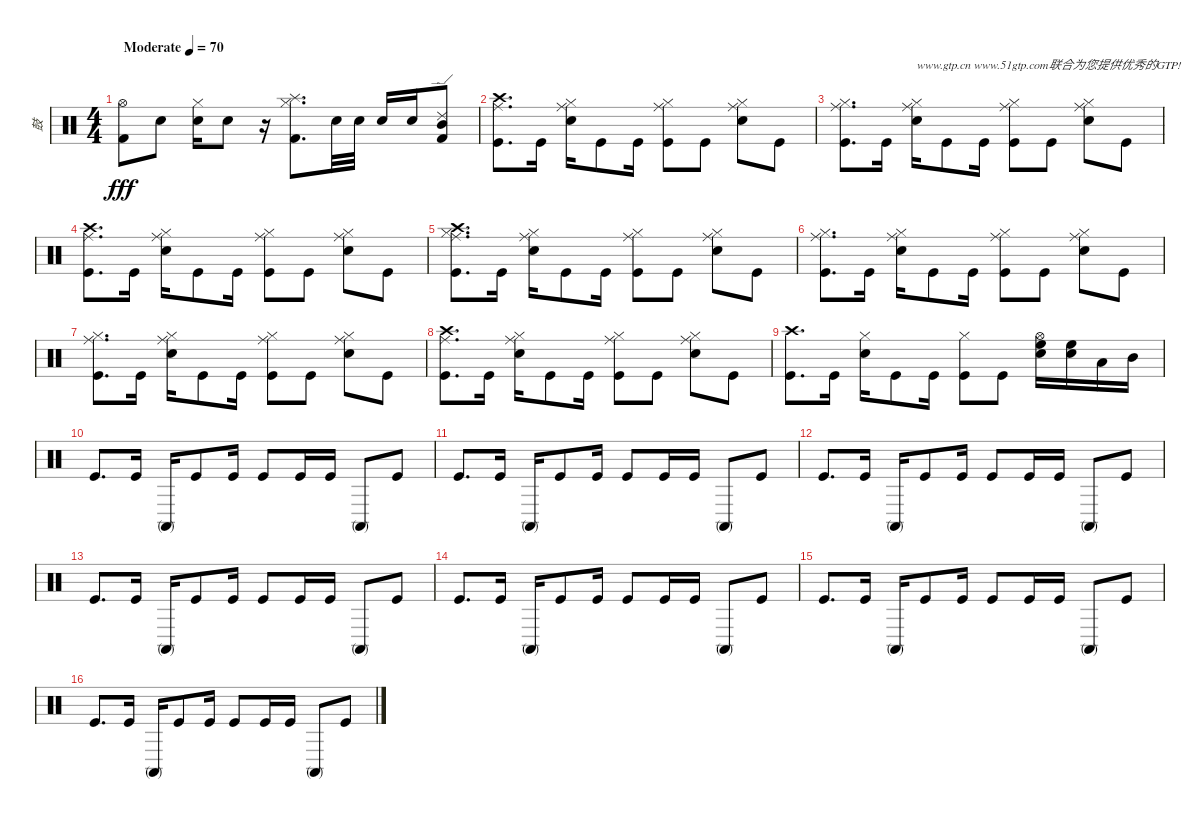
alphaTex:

\track ("鼓" "鼓") {instrument percussion}
\staff {score}
\articulation defaults
\ts (4 4)
\tempo (70 "Moderate")
\clef neutral
\ks c
("Hi-Hat (open)" "Kick (hit) 2").8{dy fff} "Electric Snare (hit)".8 ("Hi-Hat (closed)" "Electric Snare (hit)").16 "Electric Snare (hit)".8 r.16 ("Splash (hit)" "Hi-Hat (closed)" "Kick (hit) 2").8{d} "Electric Snare (hit)".32 "Electric Snare (hit)".32 "Electric Snare (hit)".16 "Electric Snare (hit)".16 ("Ride (edge) 2" "Mid Tom (hit)" "Kick (hit) 2").8 |
("Ride (middle)" "Crash high (hit)" "Kick (hit)").8{d} "Kick (hit)".16 ("Ride (middle)" "Hi-Hat (closed)" "Electric Snare (hit)").16 "Kick (hit)".8 "Kick (hit)".16 ("Ride (middle)" "Hi-Hat (closed)" "Kick (hit)").8 "Kick (hit)".8 ("Ride (middle)" "Hi-Hat (closed)" "Electric Snare (hit)").8 "Kick (hit)".8 |
("Ride (middle)" "Hi-Hat (closed)" "Kick (hit)").8{d} "Kick (hit)".16 ("Ride (middle)" "Hi-Hat (closed)" "Electric Snare (hit)").16{txt "www.gtp.cn www.51gtp.com联合为您提供优秀的GTP!"} "Kick (hit)".8 "Kick (hit)".16 ("Ride (middle)" "Hi-Hat (closed)" "Kick (hit)").8 "Kick (hit)".8 ("Ride (middle)" "Hi-Hat (closed)" "Electric Snare (hit)").8 "Kick (hit)".8 |
("Ride (middle)" "Crash high (hit)" "Kick (hit)").8{d} "Kick (hit)".16 ("Ride (middle)" "Hi-Hat (closed)" "Electric Snare (hit)").16 "Kick (hit)".8 "Kick (hit)".16 ("Ride (middle)" "Hi-Hat (closed)" "Kick (hit)").8 "Kick (hit)".8 ("Ride (middle)" "Hi-Hat (closed)" "Electric Snare (hit)").8 "Kick (hit)".8 |
("Ride (middle)" "Crash high (hit)" "Hi-Hat (closed)" "Kick (hit)").8{d} "Kick (hit)".16 ("Ride (middle)" "Hi-Hat (closed)" "Electric Snare (hit)").16 "Kick (hit)".8 "Kick (hit)".16 ("Ride (middle)" "Hi-Hat (closed)" "Kick (hit)").8 "Kick (hit)".8 ("Ride (middle)" "Hi-Hat (closed)" "Electric Snare (hit)").8 "Kick (hit)".8 |
("Ride (middle)" "Hi-Hat (closed)" "Kick (hit)").8{d} "Kick (hit)".16 ("Ride (middle)" "Hi-Hat (closed)" "Electric Snare (hit)").16 "Kick (hit)".8 "Kick (hit)".16 ("Ride (middle)" "Hi-Hat (closed)" "Kick (hit)").8 "Kick (hit)".8 ("Ride (middle)" "Hi-Hat (closed)" "Electric Snare (hit)").8 "Kick (hit)".8 |
("Ride (middle)" "Hi-Hat (closed)" "Kick (hit)").8{d} "Kick (hit)".16 ("Ride (middle)" "Hi-Hat (closed)" "Electric Snare (hit)").16 "Kick (hit)".8 "Kick (hit)".16 ("Ride (middle)" "Hi-Hat (closed)" "Kick (hit)").8 "Kick (hit)".8 ("Ride (middle)" "Hi-Hat (closed)" "Electric Snare (hit)").8 "Kick (hit)".8 |
("Ride (middle)" "Crash high (hit)" "Kick (hit)").8{d} "Kick (hit)".16 ("Ride (middle)" "Hi-Hat (closed)" "Electric Snare (hit)").16 "Kick (hit)".8 "Kick (hit)".16 ("Ride (middle)" "Hi-Hat (closed)" "Kick (hit)").8 "Kick (hit)".8 ("Ride (middle)" "Hi-Hat (closed)" "Electric Snare (hit)").8 "Kick (hit)".8 |
("Crash high (hit)" "Kick (hit)").8{d} "Kick (hit)".16 ("Hi-Hat (closed)" "Electric Snare (hit)").16 "Kick (hit)".8 "Kick (hit)".16 ("Hi-Hat (closed)" "Kick (hit)").8 "Kick (hit)".8 ("Hi-Hat (open)" "High Floor Tom (hit)" "Electric Snare (hit)").16 ("High Floor Tom (hit)" "Electric Snare (hit)").16 "Low Tom (hit)".16 "Mid Tom (hit)".16 |
"Kick (hit)".8{d} "Kick (hit)".16 "Conga high (mute)".16 "Kick (hit)".8 "Kick (hit)".16 "Kick (hit)".8 "Kick (hit)".16 "Kick (hit)".16 "Conga high (mute)".8 "Kick (hit)".8 |
"Kick (hit)".8{d} "Kick (hit)".16 "Conga high (mute)".16 "Kick (hit)".8 "Kick (hit)".16 "Kick (hit)".8 "Kick (hit)".16 "Kick (hit)".16 "Conga high (mute)".8 "Kick (hit)".8 |
"Kick (hit)".8{d} "Kick (hit)".16 "Conga high (mute)".16 "Kick (hit)".8 "Kick (hit)".16 "Kick (hit)".8 "Kick (hit)".16 "Kick (hit)".16 "Conga high (mute)".8 "Kick (hit)".8 |
"Kick (hit)".8{d} "Kick (hit)".16 "Conga high (mute)".16 "Kick (hit)".8 "Kick (hit)".16 "Kick (hit)".8 "Kick (hit)".16 "Kick (hit)".16 "Conga high (mute)".8 "Kick (hit)".8 |
"Kick (hit)".8{d} "Kick (hit)".16 "Conga high (mute)".16 "Kick (hit)".8 "Kick (hit)".16 "Kick (hit)".8 "Kick (hit)".16 "Kick (hit)".16 "Conga high (mute)".8 "Kick (hit)".8 |
"Kick (hit)".8{d} "Kick (hit)".16 "Conga high (mute)".16 "Kick (hit)".8 "Kick (hit)".16 "Kick (hit)".8 "Kick (hit)".16 "Kick (hit)".16 "Conga high (mute)".8 "Kick (hit)".8 |
"Kick (hit)".8{d} "Kick (hit)".16 "Conga high (mute)".16 "Kick (hit)".8 "Kick (hit)".16 "Kick (hit)".8 "Kick (hit)".16 "Kick (hit)".16 "Conga high (mute)".8 "Kick (hit)".8
